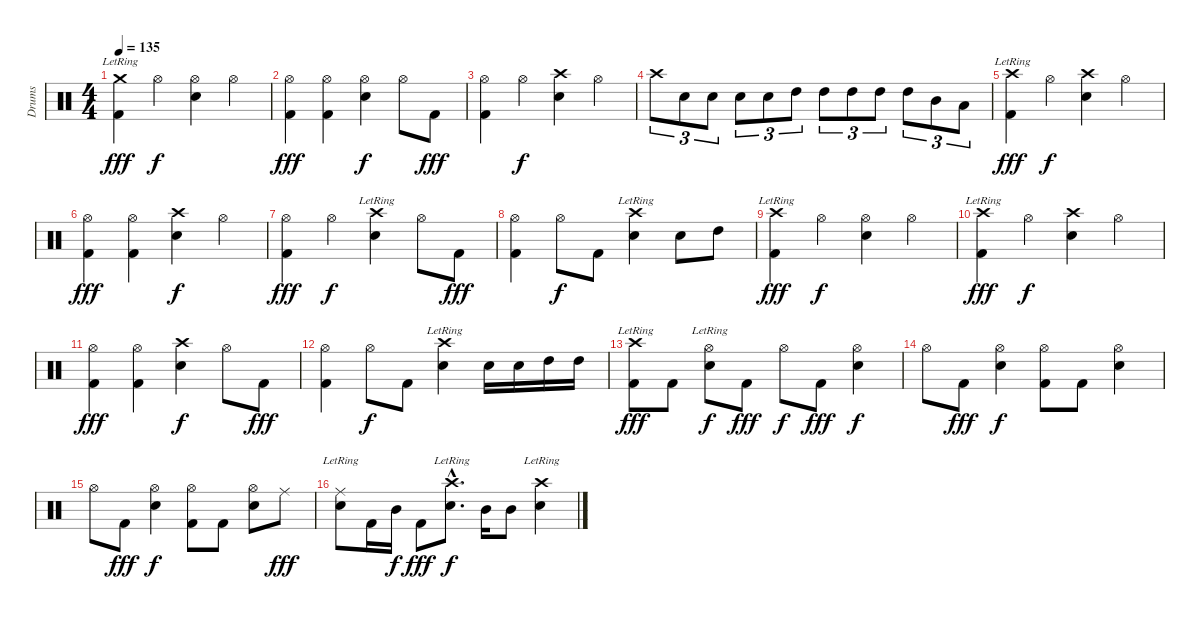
\track ("Drums" "Drums") {instrument percussion}
\staff {score}
\articulation defaults
\ts (4 4)
\tempo 135
\clef neutral
\ks c
("Crash medium (hit)"{lr} "Kick (hit) 2").4{dy fff} "Hi-Hat (open)".4{dy f} ("Hi-Hat (open)" "Snare (hit) 2").4 "Hi-Hat (open)".4 |
("Hi-Hat (open)" "Kick (hit) 2").4{dy fff} ("Hi-Hat (open)" "Kick (hit) 2").4 ("Hi-Hat (open)" "Snare (hit) 2").4{dy f} "Hi-Hat (open)".8 "Kick (hit) 2".8{dy fff} |
("Hi-Hat (open)" "Kick (hit) 2").4 "Hi-Hat (open)".4{dy f} ("Crash high (hit)" "Snare (hit) 2").4 "Hi-Hat (open)".4 |
"Crash high (hit)".8{tu (3 2)} "Snare (hit) 2".8{tu (3 2)} "Snare (hit) 2".8{tu (3 2)} "Snare (hit) 2".8{tu (3 2)} "Snare (hit) 2".8{tu (3 2)} "High Tom (hit)".8{tu (3 2)} "High Tom (hit)".8{tu (3 2)} "High Tom (hit)".8{tu (3 2)} "High Tom (hit)".8{tu (3 2)} "High Tom (hit)".8{tu (3 2)} "Mid Tom (hit)".8{tu (3 2)} "Low Tom (hit)".8{tu (3 2)} |
("Crash high (hit)"{lr} "Kick (hit) 2").4{dy fff} "Hi-Hat (open)".4{dy f} ("Crash high (hit)" "Snare (hit) 2").4 "Hi-Hat (open)".4 |
("Hi-Hat (open)" "Kick (hit) 2").4{dy fff} ("Hi-Hat (open)" "Kick (hit) 2").4 ("Crash high (hit)" "Snare (hit) 2").4{dy f} "Hi-Hat (open)".4 |
("Hi-Hat (open)" "Kick (hit) 2").4{dy fff} "Hi-Hat (open)".4{dy f} ("Crash high (hit)"{lr} "Snare (hit) 2").4 "Hi-Hat (open)".8 "Kick (hit) 2".8{dy fff} |
("Hi-Hat (open)" "Kick (hit) 2").4 "Hi-Hat (open)".8{dy f} "Kick (hit) 2".8 ("Crash high (hit)"{lr} "Snare (hit) 2").4 "Snare (hit) 2".8 "High Tom (hit)".8 |
("Crash high (hit)"{lr} "Kick (hit) 2").4{dy fff} "Hi-Hat (open)".4{dy f} ("Hi-Hat (open)" "Snare (hit) 2").4 "Hi-Hat (open)".4 |
("Crash high (hit)"{lr} "Kick (hit) 2").4{dy fff} "Hi-Hat (open)".4{dy f} ("Crash high (hit)" "Snare (hit) 2").4 "Hi-Hat (open)".4 |
("Hi-Hat (open)" "Kick (hit) 2").4{dy fff} ("Hi-Hat (open)" "Kick (hit) 2").4 ("Crash high (hit)" "Snare (hit) 2").4{dy f} "Hi-Hat (open)".8 "Kick (hit) 2".8{dy fff} |
("Hi-Hat (open)" "Kick (hit) 2").4 "Hi-Hat (open)".8{dy f} "Kick (hit) 2".8 ("Crash high (hit)"{lr} "Snare (hit) 2").4 "Snare (hit) 2".16 "Snare (hit) 2".16 "High Tom (hit)".16 "High Tom (hit)".16 |
("Crash high (hit)"{lr} "Kick (hit) 2").8{dy fff} "Kick (hit) 2".8 ("Hi-Hat (open)"{lr} "Snare (hit) 2").8{dy f} "Kick (hit) 2".8{dy fff} "Hi-Hat (open)".8{dy f} "Kick (hit) 2".8{dy fff} ("Hi-Hat (open)" "Snare (hit) 2").4{dy f} |
"Hi-Hat (open)".8 "Kick (hit) 2".8{dy fff} ("Hi-Hat (open)" "Snare (hit) 2").4{dy f} ("Hi-Hat (open)" "Kick (hit) 2").8 "Kick (hit) 2".8 ("Hi-Hat (open)" "Snare (hit) 2").4 |
"Hi-Hat (open)".8 "Kick (hit) 2".8{dy fff} ("Hi-Hat (open)" "Snare (hit) 2").4{dy f} ("Hi-Hat (open)" "Kick (hit) 2").8 "Kick (hit) 2".8 ("Hi-Hat (open)" "Snare (hit) 2").8 "Ride (middle)".8{dy fff} |
("Ride (middle)"{lr} "Snare (hit) 2").8 "Kick (hit) 2".16 "Mid Tom (hit)".16{dy f} "Kick (hit) 2".8{dy fff} ("Crash high (hit)"{hac lr} "Snare (hit) 2"{hac}).8{d dy f} "Mid Tom (hit)".16 "Mid Tom (hit)".8 ("Crash high (hit)"{lr} "Snare (hit) 2").4
